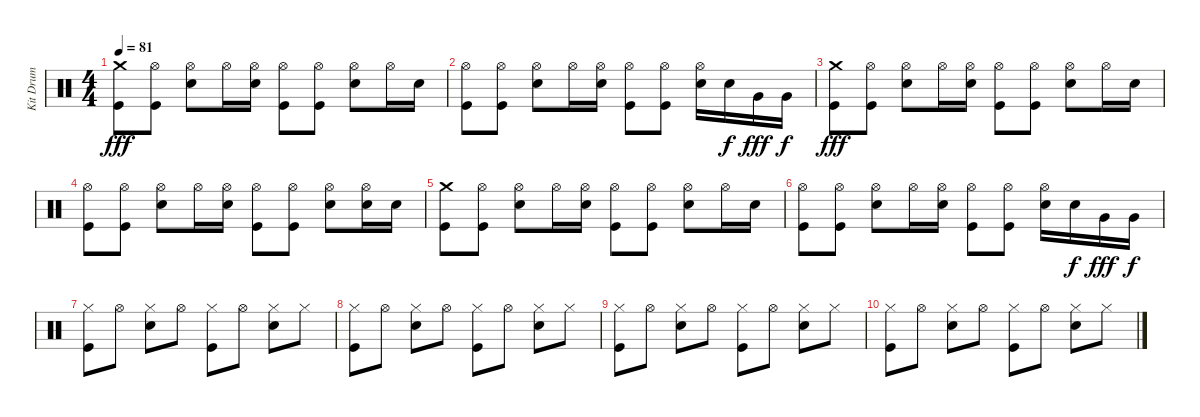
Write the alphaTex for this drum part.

\track ("Kit Drum" "Kit Drum") {instrument percussion}
\staff {score}
\articulation defaults
\ts (4 4)
\tempo 81
\clef neutral
\ks c
("Crash medium (hit)" "Kick (hit)").8{dy fff} ("Hi-Hat (open)" "Kick (hit)").8 ("Hi-Hat (open)" "Electric Snare (hit)").8 "Hi-Hat (open)".16 ("Hi-Hat (open)" "Electric Snare (hit)").16 ("Hi-Hat (open)" "Kick (hit)").8 ("Hi-Hat (open)" "Kick (hit)").8 ("Hi-Hat (open)" "Electric Snare (hit)").8 "Hi-Hat (open)".16 "Electric Snare (hit)".16 |
("Hi-Hat (open)" "Kick (hit)").8 ("Hi-Hat (open)" "Kick (hit)").8 ("Hi-Hat (open)" "Electric Snare (hit)").8 "Hi-Hat (open)".16 ("Hi-Hat (open)" "Electric Snare (hit)").16 ("Hi-Hat (open)" "Kick (hit)").8 ("Hi-Hat (open)" "Kick (hit)").8 ("Hi-Hat (open)" "Electric Snare (hit)").16 "Electric Snare (hit)".16{dy f} "Very Low Tom (hit)".16{dy fff} "Very Low Tom (hit)".16{dy f} |
("Crash medium (hit)" "Kick (hit)").8{dy fff} ("Hi-Hat (open)" "Kick (hit)").8 ("Hi-Hat (open)" "Electric Snare (hit)").8 "Hi-Hat (open)".16 ("Hi-Hat (open)" "Electric Snare (hit)").16 ("Hi-Hat (open)" "Kick (hit)").8 ("Hi-Hat (open)" "Kick (hit)").8 ("Hi-Hat (open)" "Electric Snare (hit)").8 "Hi-Hat (open)".16 "Electric Snare (hit)".16 |
("Hi-Hat (open)" "Kick (hit)").8 ("Hi-Hat (open)" "Kick (hit)").8 ("Hi-Hat (open)" "Electric Snare (hit)").8 "Hi-Hat (open)".16 ("Hi-Hat (open)" "Electric Snare (hit)").16 ("Hi-Hat (open)" "Kick (hit)").8 ("Hi-Hat (open)" "Kick (hit)").8 ("Hi-Hat (open)" "Electric Snare (hit)").8 ("Hi-Hat (open)" "Electric Snare (hit)").16 "Electric Snare (hit)".16 |
("Crash medium (hit)" "Kick (hit)").8 ("Hi-Hat (open)" "Kick (hit)").8 ("Hi-Hat (open)" "Electric Snare (hit)").8 "Hi-Hat (open)".16 ("Hi-Hat (open)" "Electric Snare (hit)").16 ("Hi-Hat (open)" "Kick (hit)").8 ("Hi-Hat (open)" "Kick (hit)").8 ("Hi-Hat (open)" "Electric Snare (hit)").8 "Hi-Hat (open)".16 "Electric Snare (hit)".16 |
("Hi-Hat (open)" "Kick (hit)").8 ("Hi-Hat (open)" "Kick (hit)").8 ("Hi-Hat (open)" "Electric Snare (hit)").8 "Hi-Hat (open)".16 ("Hi-Hat (open)" "Electric Snare (hit)").16 ("Hi-Hat (open)" "Kick (hit)").8 ("Hi-Hat (open)" "Kick (hit)").8 ("Hi-Hat (open)" "Electric Snare (hit)").16 "Electric Snare (hit)".16{dy f} "Very Low Tom (hit)".16{dy fff} "Very Low Tom (hit)".16{dy f} |
("Hi-Hat (closed)" "Kick (hit)").8 "Hi-Hat (open)".8 ("Hi-Hat (closed)" "Snare (hit) 2").8 "Hi-Hat (open)".8 ("Hi-Hat (closed)" "Kick (hit)").8 "Hi-Hat (open)".8 ("Hi-Hat (closed)" "Snare (hit) 2").8 "Hi-Hat (closed)".8 |
("Hi-Hat (closed)" "Kick (hit)").8 "Hi-Hat (open)".8 ("Hi-Hat (closed)" "Snare (hit) 2").8 "Hi-Hat (open)".8 ("Hi-Hat (closed)" "Kick (hit)").8 "Hi-Hat (open)".8 ("Hi-Hat (closed)" "Snare (hit) 2").8 "Hi-Hat (closed)".8 |
("Hi-Hat (closed)" "Kick (hit)").8 "Hi-Hat (open)".8 ("Hi-Hat (closed)" "Snare (hit) 2").8 "Hi-Hat (open)".8 ("Hi-Hat (closed)" "Kick (hit)").8 "Hi-Hat (open)".8 ("Hi-Hat (closed)" "Snare (hit) 2").8 "Hi-Hat (closed)".8 |
("Hi-Hat (closed)" "Kick (hit)").8 "Hi-Hat (open)".8 ("Hi-Hat (closed)" "Snare (hit) 2").8 "Hi-Hat (open)".8 ("Hi-Hat (closed)" "Kick (hit)").8 "Hi-Hat (open)".8 ("Hi-Hat (closed)" "Snare (hit) 2").8 "Hi-Hat (closed)".8
